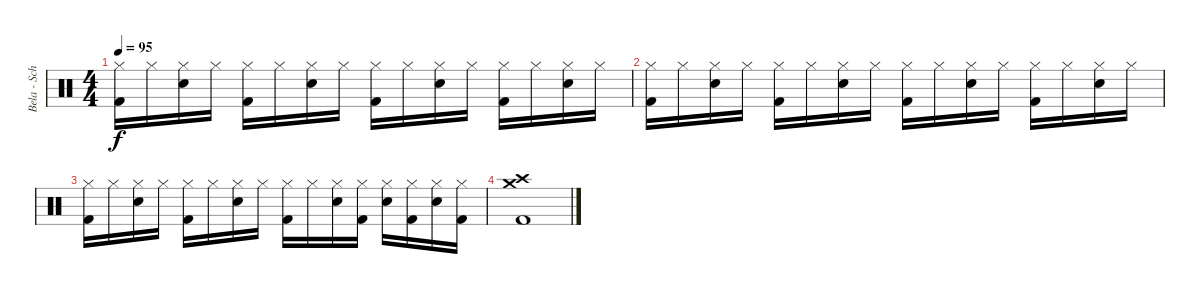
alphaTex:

\track ("Bela - Schlagzeug" "Bela - Sch") {instrument percussion}
\staff {score}
\articulation defaults
\ts (4 4)
\tempo 95
\clef neutral
\ks c
("Hi-Hat (closed)" "Kick (hit) 2").16{dy f} "Hi-Hat (closed)".16 ("Hi-Hat (closed)" "Snare (hit) 2").16 "Hi-Hat (closed)".16 ("Hi-Hat (closed)" "Kick (hit) 2").16 "Hi-Hat (closed)".16 ("Hi-Hat (closed)" "Snare (hit) 2").16 "Hi-Hat (closed)".16 ("Hi-Hat (closed)" "Kick (hit) 2").16 "Hi-Hat (closed)".16 ("Hi-Hat (closed)" "Snare (hit) 2").16 "Hi-Hat (closed)".16 ("Hi-Hat (closed)" "Kick (hit) 2").16 "Hi-Hat (closed)".16 ("Hi-Hat (closed)" "Snare (hit) 2").16 "Hi-Hat (closed)".16 |
("Hi-Hat (closed)" "Kick (hit) 2").16 "Hi-Hat (closed)".16 ("Hi-Hat (closed)" "Snare (hit) 2").16 "Hi-Hat (closed)".16 ("Hi-Hat (closed)" "Kick (hit) 2").16 "Hi-Hat (closed)".16 ("Hi-Hat (closed)" "Snare (hit) 2").16 "Hi-Hat (closed)".16 ("Hi-Hat (closed)" "Kick (hit) 2").16 "Hi-Hat (closed)".16 ("Hi-Hat (closed)" "Snare (hit) 2").16 "Hi-Hat (closed)".16 ("Hi-Hat (closed)" "Kick (hit) 2").16 "Hi-Hat (closed)".16 ("Hi-Hat (closed)" "Snare (hit) 2").16 "Hi-Hat (closed)".16 |
("Hi-Hat (closed)" "Kick (hit) 2").16 "Hi-Hat (closed)".16 ("Hi-Hat (closed)" "Snare (hit) 2").16 "Hi-Hat (closed)".16 ("Hi-Hat (closed)" "Kick (hit) 2").16 "Hi-Hat (closed)".16 ("Hi-Hat (closed)" "Snare (hit) 2").16 "Hi-Hat (closed)".16 ("Hi-Hat (closed)" "Kick (hit) 2").16 "Hi-Hat (closed)".16 ("Hi-Hat (closed)" "Snare (hit) 2").16 ("Hi-Hat (closed)" "Kick (hit) 2").16 ("Hi-Hat (closed)" "Snare (hit) 2").16 ("Hi-Hat (closed)" "Kick (hit) 2").16 ("Hi-Hat (closed)" "Snare (hit) 2").16 ("Hi-Hat (closed)" "Kick (hit) 2").16 |
("Crash high (hit)" "Crash medium (hit)" "Kick (hit) 2").1
